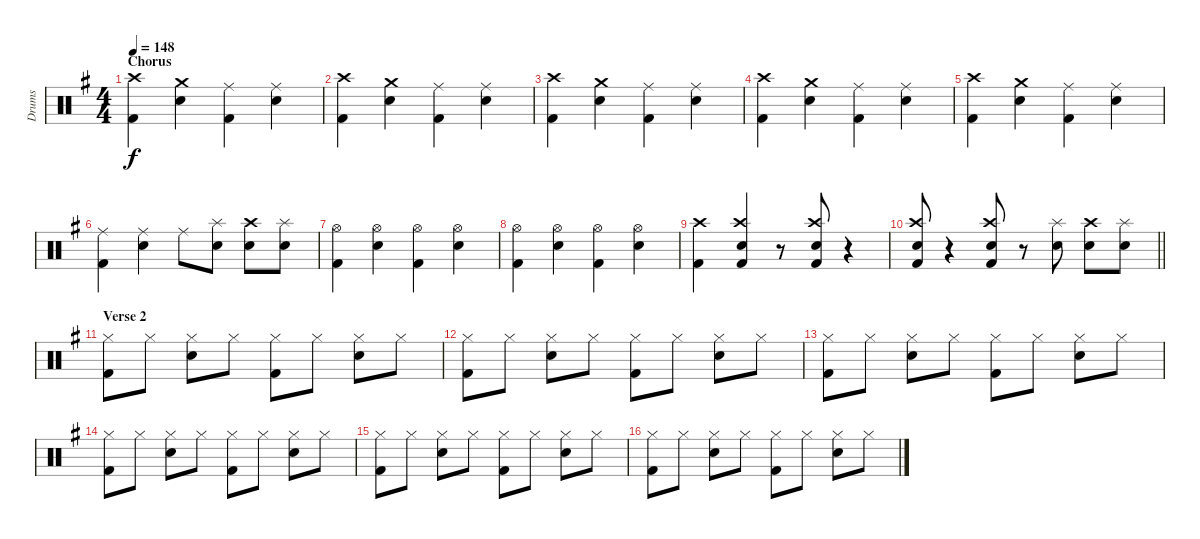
\track ("Drums" "Drums") {instrument percussion}
\staff {score}
\articulation defaults
\ts (4 4)
\section ("" "Chorus")
\tempo 148
\clef neutral
\ks g
("Kick (hit) 2" "Crash high (hit)").4{dy f} ("Snare (hit) 2" "Crash medium (hit)").4 ("Kick (hit) 2" "Ride (middle)").4 ("Snare (hit) 2" "Ride (middle)").4 |
("Kick (hit) 2" "Crash high (hit)").4 ("Snare (hit) 2" "Crash medium (hit)").4 ("Kick (hit) 2" "Ride (middle)").4 ("Snare (hit) 2" "Ride (middle)").4 |
("Kick (hit) 2" "Crash high (hit)").4 ("Snare (hit) 2" "Crash medium (hit)").4 ("Kick (hit) 2" "Ride (middle)").4 ("Snare (hit) 2" "Ride (middle)").4 |
("Kick (hit) 2" "Crash high (hit)").4 ("Snare (hit) 2" "Crash medium (hit)").4 ("Kick (hit) 2" "Ride (middle)").4 ("Snare (hit) 2" "Ride (middle)").4 |
("Kick (hit) 2" "Crash high (hit)").4 ("Snare (hit) 2" "Crash medium (hit)").4 ("Kick (hit) 2" "Ride (middle)").4 ("Snare (hit) 2" "Ride (middle)").4 |
("Kick (hit) 2" "Ride (middle)").4 ("Snare (hit) 2" "Ride (middle)").4 "Ride (middle)".8 ("Snare (hit) 2" "Splash (hit)").8 ("Snare (hit) 2" "Crash high (hit)").8 ("Snare (hit) 2" "Splash (hit)").8 |
("Kick (hit) 2" "Hi-Hat (open)").4 ("Snare (hit) 2" "Hi-Hat (open)").4 ("Kick (hit) 2" "Hi-Hat (open)").4 ("Snare (hit) 2" "Hi-Hat (open)").4 |
("Kick (hit) 2" "Hi-Hat (open)").4 ("Snare (hit) 2" "Hi-Hat (open)").4 ("Kick (hit) 2" "Hi-Hat (open)").4 ("Snare (hit) 2" "Hi-Hat (open)").4 |
("Kick (hit) 2" "Crash high (hit)").4 ("Snare (hit) 2" "Crash high (hit)" "Kick (hit) 2").4 r.8 ("Snare (hit) 2" "Crash high (hit)" "Kick (hit) 2").8 r.4 |
\barLineRight lightlight
("Snare (hit) 2" "Crash high (hit)" "Kick (hit) 2").8 r.4 ("Snare (hit) 2" "Crash high (hit)" "Kick (hit) 2").8 r.8 ("Snare (hit) 2" "Splash (hit)").8 ("Snare (hit) 2" "Crash high (hit)").8 ("Snare (hit) 2" "Splash (hit)").8 |
\section ("" "Verse 2")
("Kick (hit) 2" "Hi-Hat (closed)").8 "Hi-Hat (closed)".8 ("Snare (hit) 2" "Hi-Hat (closed)").8 "Hi-Hat (closed)".8 ("Kick (hit) 2" "Hi-Hat (closed)").8 "Hi-Hat (closed)".8 ("Snare (hit) 2" "Hi-Hat (closed)").8 "Hi-Hat (closed)".8 |
("Kick (hit) 2" "Hi-Hat (closed)").8 "Hi-Hat (closed)".8 ("Snare (hit) 2" "Hi-Hat (closed)").8 "Hi-Hat (closed)".8 ("Kick (hit) 2" "Hi-Hat (closed)").8 "Hi-Hat (closed)".8 ("Snare (hit) 2" "Hi-Hat (closed)").8 "Hi-Hat (closed)".8 |
("Kick (hit) 2" "Hi-Hat (closed)").8 "Hi-Hat (closed)".8 ("Snare (hit) 2" "Hi-Hat (closed)").8 "Hi-Hat (closed)".8 ("Kick (hit) 2" "Hi-Hat (closed)").8 "Hi-Hat (closed)".8 ("Snare (hit) 2" "Hi-Hat (closed)").8 "Hi-Hat (closed)".8 |
("Kick (hit) 2" "Hi-Hat (closed)").8 "Hi-Hat (closed)".8 ("Snare (hit) 2" "Hi-Hat (closed)").8 "Hi-Hat (closed)".8 ("Kick (hit) 2" "Hi-Hat (closed)").8 "Hi-Hat (closed)".8 ("Snare (hit) 2" "Hi-Hat (closed)").8 "Hi-Hat (closed)".8 |
("Kick (hit) 2" "Hi-Hat (closed)").8 "Hi-Hat (closed)".8 ("Snare (hit) 2" "Hi-Hat (closed)").8 "Hi-Hat (closed)".8 ("Kick (hit) 2" "Hi-Hat (closed)").8 "Hi-Hat (closed)".8 ("Snare (hit) 2" "Hi-Hat (closed)").8 "Hi-Hat (closed)".8 |
("Kick (hit) 2" "Hi-Hat (closed)").8 "Hi-Hat (closed)".8 ("Snare (hit) 2" "Hi-Hat (closed)").8 "Hi-Hat (closed)".8 ("Kick (hit) 2" "Hi-Hat (closed)").8 "Hi-Hat (closed)".8 ("Snare (hit) 2" "Hi-Hat (closed)").8 "Hi-Hat (closed)".8
